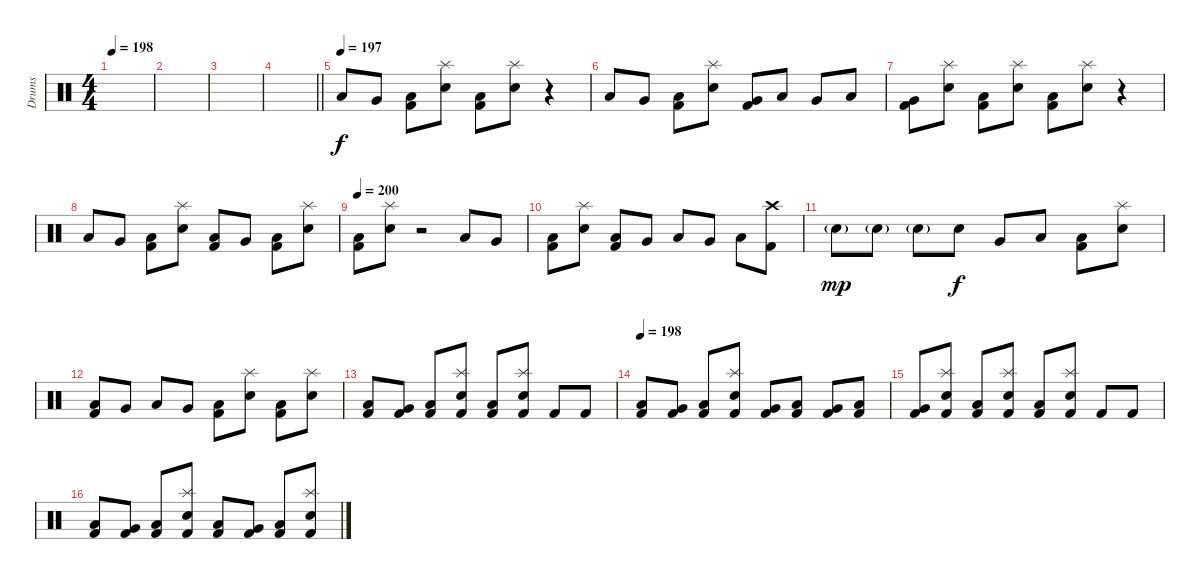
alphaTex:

\track ("Drums" "Drums") {instrument percussion}
\staff {score}
\articulation defaults
\ts (4 4)
\tempo 198
\clef neutral
\ks c
|
|
|
\barLineRight lightlight
|
\section ("" "")
\tempo (197)
"Low Floor Tom (hit)".8 "Very Low Tom (hit)".8 ("Low Floor Tom (hit)" "Kick (hit) 2").8 ("Splash (hit)" "Electric Snare (hit)").8 ("Low Floor Tom (hit)" "Kick (hit) 2").8 ("Splash (hit)" "Electric Snare (hit)").8 r.4 |
"Low Floor Tom (hit)".8 "Very Low Tom (hit)".8 ("Low Floor Tom (hit)" "Kick (hit) 2").8 ("Splash (hit)" "Electric Snare (hit)").8 ("Very Low Tom (hit)" "Kick (hit) 2").8 "Low Floor Tom (hit)".8 "Very Low Tom (hit)".8 "Low Floor Tom (hit)".8 |
("Very Low Tom (hit)" "Kick (hit) 2").8 ("Splash (hit)" "Electric Snare (hit)").8 ("Low Floor Tom (hit)" "Kick (hit) 2").8 ("Splash (hit)" "Electric Snare (hit)").8 ("Low Floor Tom (hit)" "Kick (hit) 2").8 ("Splash (hit)" "Electric Snare (hit)").8 r.4 |
"Low Floor Tom (hit)".8 "Very Low Tom (hit)".8 ("Low Floor Tom (hit)" "Kick (hit) 2").8 ("Splash (hit)" "Electric Snare (hit)").8 ("Low Floor Tom (hit)" "Kick (hit) 2").8 "Very Low Tom (hit)".8 ("Low Floor Tom (hit)" "Kick (hit) 2").8 ("Splash (hit)" "Electric Snare (hit)").8 |
\tempo 200
("Low Floor Tom (hit)" "Kick (hit) 2").8 ("Splash (hit)" "Electric Snare (hit)").8 r.2 "Low Floor Tom (hit)".8 "Very Low Tom (hit)".8 |
("Low Floor Tom (hit)" "Kick (hit) 2").8 ("Splash (hit)" "Electric Snare (hit)").8 ("Low Floor Tom (hit)" "Kick (hit) 2").8 "Very Low Tom (hit)".8 "Low Floor Tom (hit)".8 "Very Low Tom (hit)".8 "Low Floor Tom (hit)".8 ("Crash high (hit)" "Kick (hit) 2").8 |
"Electric Snare (hit)"{g}.8{dy mp} "Electric Snare (hit)"{g}.8 "Electric Snare (hit)"{g}.8 "Electric Snare (hit)".8{dy f} "Very Low Tom (hit)".8 "Low Tom (hit)".8 ("Low Floor Tom (hit)" "Kick (hit) 2").8 ("Splash (hit)" "Electric Snare (hit)").8 |
("Low Floor Tom (hit)" "Kick (hit) 2").8 "Very Low Tom (hit)".8 "Low Floor Tom (hit)".8 "Very Low Tom (hit)".8 ("Low Floor Tom (hit)" "Kick (hit) 2").8 ("Splash (hit)" "Electric Snare (hit)").8 ("Low Floor Tom (hit)" "Kick (hit) 2").8 ("Splash (hit)" "Electric Snare (hit)").8 |
("Low Floor Tom (hit)" "Kick (hit) 2").8 ("Very Low Tom (hit)" "Kick (hit) 2").8 ("Low Floor Tom (hit)" "Kick (hit) 2").8 ("Splash (hit)" "Electric Snare (hit)" "Kick (hit) 2").8 ("Low Floor Tom (hit)" "Kick (hit) 2").8 ("Splash (hit)" "Electric Snare (hit)" "Kick (hit) 2").8 "Kick (hit) 2".8 "Kick (hit) 2".8 |
\tempo 198
("Low Floor Tom (hit)" "Kick (hit) 2").8 ("Very Low Tom (hit)" "Kick (hit) 2").8 ("Low Floor Tom (hit)" "Kick (hit) 2").8 ("Splash (hit)" "Electric Snare (hit)" "Kick (hit) 2").8 ("Very Low Tom (hit)" "Kick (hit) 2").8 ("Low Floor Tom (hit)" "Kick (hit) 2").8 ("Very Low Tom (hit)" "Kick (hit) 2").8 ("Low Floor Tom (hit)" "Kick (hit) 2").8 |
("Very Low Tom (hit)" "Kick (hit) 2").8 ("Splash (hit)" "Electric Snare (hit)" "Kick (hit) 2").8 ("Low Floor Tom (hit)" "Kick (hit) 2").8 ("Splash (hit)" "Electric Snare (hit)" "Kick (hit) 2").8 ("Low Floor Tom (hit)" "Kick (hit) 2").8 ("Splash (hit)" "Electric Snare (hit)" "Kick (hit) 2").8 "Kick (hit) 2".8 "Kick (hit) 2".8 |
("Low Floor Tom (hit)" "Kick (hit) 2").8 ("Very Low Tom (hit)" "Kick (hit) 2").8 ("Low Floor Tom (hit)" "Kick (hit) 2").8 ("Splash (hit)" "Electric Snare (hit)" "Kick (hit) 2").8 ("Low Floor Tom (hit)" "Kick (hit) 2").8 ("Very Low Tom (hit)" "Kick (hit) 2").8 ("Low Floor Tom (hit)" "Kick (hit) 2").8 ("Splash (hit)" "Electric Snare (hit)" "Kick (hit) 2").8
